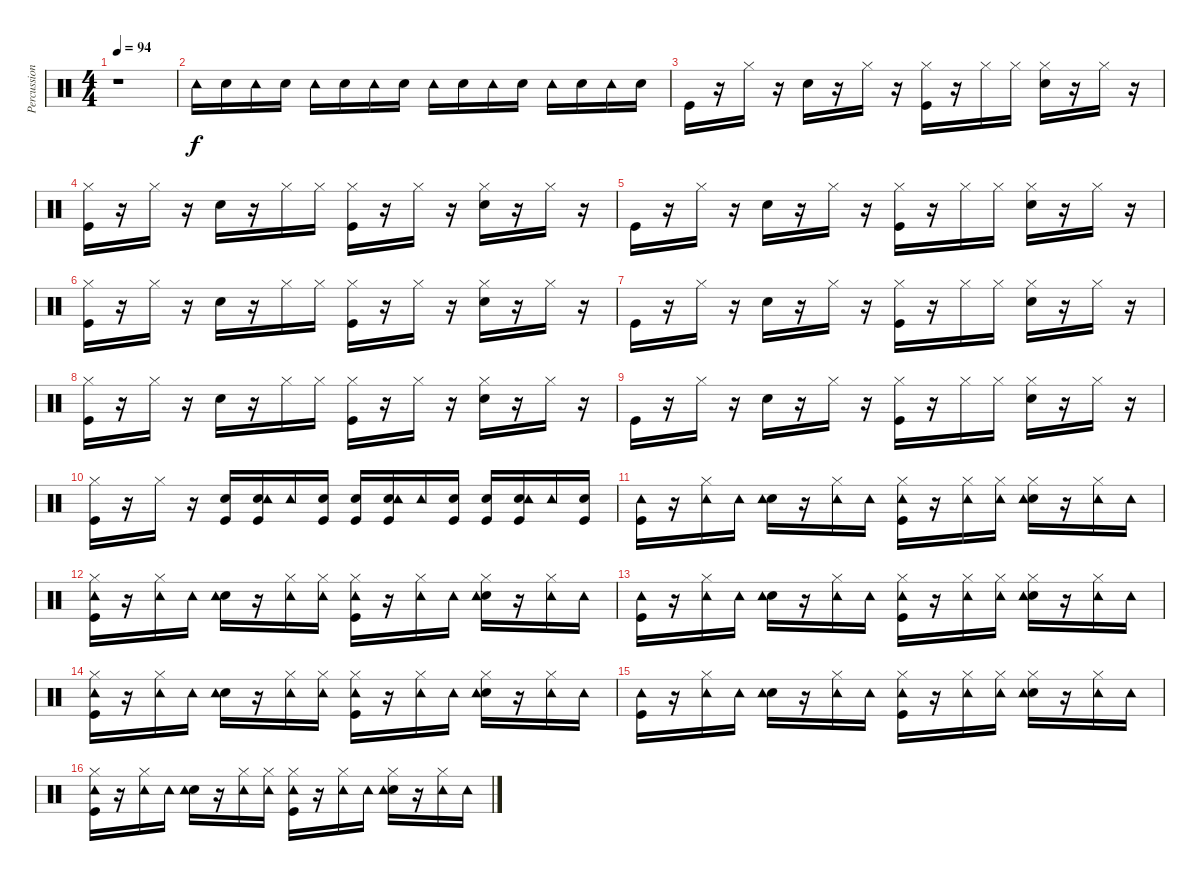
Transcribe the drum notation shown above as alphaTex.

\track ("Percussions/From Midi" "Percussion") {instrument percussion}
\staff {score}
\articulation defaults
\ts (4 4)
\tempo 94
\clef neutral
\ks c
r.1{dy f} |
"Tambourine (hit)".16 "Electric Snare (hit)".16 "Tambourine (hit)".16 "Electric Snare (hit)".16 "Tambourine (hit)".16 "Electric Snare (hit)".16 "Tambourine (hit)".16 "Electric Snare (hit)".16 "Tambourine (hit)".16 "Electric Snare (hit)".16 "Tambourine (hit)".16 "Electric Snare (hit)".16 "Tambourine (hit)".16 "Electric Snare (hit)".16 "Tambourine (hit)".16 "Electric Snare (hit)".16 |
"Kick (hit)".16 r.16 "Hi-Hat (closed)".16 r.16 "Electric Snare (hit)".16 r.16 "Hi-Hat (closed)".16 r.16 ("Kick (hit)" "Hi-Hat (closed)").16 r.16 "Hi-Hat (closed)".16 "Hi-Hat (closed)".16 ("Electric Snare (hit)" "Hi-Hat (closed)").16 r.16 "Hi-Hat (closed)".16 r.16 |
("Kick (hit)" "Hi-Hat (closed)").16 r.16 "Hi-Hat (closed)".16 r.16 "Electric Snare (hit)".16 r.16 "Hi-Hat (closed)".16 "Hi-Hat (closed)".16 ("Kick (hit)" "Hi-Hat (closed)").16 r.16 "Hi-Hat (closed)".16 r.16 ("Electric Snare (hit)" "Hi-Hat (closed)").16 r.16 "Hi-Hat (closed)".16 r.16 |
"Kick (hit)".16 r.16 "Hi-Hat (closed)".16 r.16 "Electric Snare (hit)".16 r.16 "Hi-Hat (closed)".16 r.16 ("Kick (hit)" "Hi-Hat (closed)").16 r.16 "Hi-Hat (closed)".16 "Hi-Hat (closed)".16 ("Electric Snare (hit)" "Hi-Hat (closed)").16 r.16 "Hi-Hat (closed)".16 r.16 |
("Kick (hit)" "Hi-Hat (closed)").16 r.16 "Hi-Hat (closed)".16 r.16 "Electric Snare (hit)".16 r.16 "Hi-Hat (closed)".16 "Hi-Hat (closed)".16 ("Kick (hit)" "Hi-Hat (closed)").16 r.16 "Hi-Hat (closed)".16 r.16 ("Electric Snare (hit)" "Hi-Hat (closed)").16 r.16 "Hi-Hat (closed)".16 r.16 |
"Kick (hit)".16 r.16 "Hi-Hat (closed)".16 r.16 "Electric Snare (hit)".16 r.16 "Hi-Hat (closed)".16 r.16 ("Kick (hit)" "Hi-Hat (closed)").16 r.16 "Hi-Hat (closed)".16 "Hi-Hat (closed)".16 ("Electric Snare (hit)" "Hi-Hat (closed)").16 r.16 "Hi-Hat (closed)".16 r.16 |
("Kick (hit)" "Hi-Hat (closed)").16 r.16 "Hi-Hat (closed)".16 r.16 "Electric Snare (hit)".16 r.16 "Hi-Hat (closed)".16 "Hi-Hat (closed)".16 ("Kick (hit)" "Hi-Hat (closed)").16 r.16 "Hi-Hat (closed)".16 r.16 ("Electric Snare (hit)" "Hi-Hat (closed)").16 r.16 "Hi-Hat (closed)".16 r.16 |
"Kick (hit)".16 r.16 "Hi-Hat (closed)".16 r.16 "Electric Snare (hit)".16 r.16 "Hi-Hat (closed)".16 r.16 ("Kick (hit)" "Hi-Hat (closed)").16 r.16 "Hi-Hat (closed)".16 "Hi-Hat (closed)".16 ("Electric Snare (hit)" "Hi-Hat (closed)").16 r.16 "Hi-Hat (closed)".16 r.16 |
("Kick (hit)" "Hi-Hat (closed)").16 r.16 "Hi-Hat (closed)".16 r.16 ("Kick (hit)" "Electric Snare (hit)").16 ("Kick (hit)" "Electric Snare (hit)" "Tambourine (hit)").16 "Tambourine (hit)".16 ("Kick (hit)" "Electric Snare (hit)").16 ("Kick (hit)" "Electric Snare (hit)").16 ("Kick (hit)" "Electric Snare (hit)" "Tambourine (hit)").16 "Tambourine (hit)".16 ("Kick (hit)" "Electric Snare (hit)").16 ("Kick (hit)" "Electric Snare (hit)").16 ("Kick (hit)" "Electric Snare (hit)" "Tambourine (hit)").16 "Tambourine (hit)".16 ("Kick (hit)" "Electric Snare (hit)").16 |
("Kick (hit)" "Tambourine (hit)").16 r.16 ("Hi-Hat (closed)" "Tambourine (hit)").16 "Tambourine (hit)".16 ("Electric Snare (hit)" "Tambourine (hit)").16 r.16 ("Hi-Hat (closed)" "Tambourine (hit)").16 "Tambourine (hit)".16 ("Kick (hit)" "Hi-Hat (closed)" "Tambourine (hit)").16 r.16 ("Hi-Hat (closed)" "Tambourine (hit)").16 ("Hi-Hat (closed)" "Tambourine (hit)").16 ("Electric Snare (hit)" "Hi-Hat (closed)" "Tambourine (hit)").16 r.16 ("Hi-Hat (closed)" "Tambourine (hit)").16 "Tambourine (hit)".16 |
("Kick (hit)" "Hi-Hat (closed)" "Tambourine (hit)").16 r.16 ("Hi-Hat (closed)" "Tambourine (hit)").16 "Tambourine (hit)".16 ("Electric Snare (hit)" "Tambourine (hit)").16 r.16 ("Hi-Hat (closed)" "Tambourine (hit)").16 ("Hi-Hat (closed)" "Tambourine (hit)").16 ("Kick (hit)" "Hi-Hat (closed)" "Tambourine (hit)").16 r.16 ("Hi-Hat (closed)" "Tambourine (hit)").16 "Tambourine (hit)".16 ("Electric Snare (hit)" "Hi-Hat (closed)" "Tambourine (hit)").16 r.16 ("Hi-Hat (closed)" "Tambourine (hit)").16 "Tambourine (hit)".16 |
("Kick (hit)" "Tambourine (hit)").16 r.16 ("Hi-Hat (closed)" "Tambourine (hit)").16 "Tambourine (hit)".16 ("Electric Snare (hit)" "Tambourine (hit)").16 r.16 ("Hi-Hat (closed)" "Tambourine (hit)").16 "Tambourine (hit)".16 ("Kick (hit)" "Hi-Hat (closed)" "Tambourine (hit)").16 r.16 ("Hi-Hat (closed)" "Tambourine (hit)").16 ("Hi-Hat (closed)" "Tambourine (hit)").16 ("Electric Snare (hit)" "Hi-Hat (closed)" "Tambourine (hit)").16 r.16 ("Hi-Hat (closed)" "Tambourine (hit)").16 "Tambourine (hit)".16 |
("Kick (hit)" "Hi-Hat (closed)" "Tambourine (hit)").16 r.16 ("Hi-Hat (closed)" "Tambourine (hit)").16 "Tambourine (hit)".16 ("Electric Snare (hit)" "Tambourine (hit)").16 r.16 ("Hi-Hat (closed)" "Tambourine (hit)").16 ("Hi-Hat (closed)" "Tambourine (hit)").16 ("Kick (hit)" "Hi-Hat (closed)" "Tambourine (hit)").16 r.16 ("Hi-Hat (closed)" "Tambourine (hit)").16 "Tambourine (hit)".16 ("Electric Snare (hit)" "Hi-Hat (closed)" "Tambourine (hit)").16 r.16 ("Hi-Hat (closed)" "Tambourine (hit)").16 "Tambourine (hit)".16 |
("Kick (hit)" "Tambourine (hit)").16 r.16 ("Hi-Hat (closed)" "Tambourine (hit)").16 "Tambourine (hit)".16 ("Electric Snare (hit)" "Tambourine (hit)").16 r.16 ("Hi-Hat (closed)" "Tambourine (hit)").16 "Tambourine (hit)".16 ("Kick (hit)" "Hi-Hat (closed)" "Tambourine (hit)").16 r.16 ("Hi-Hat (closed)" "Tambourine (hit)").16 ("Hi-Hat (closed)" "Tambourine (hit)").16 ("Electric Snare (hit)" "Hi-Hat (closed)" "Tambourine (hit)").16 r.16 ("Hi-Hat (closed)" "Tambourine (hit)").16 "Tambourine (hit)".16 |
("Kick (hit)" "Hi-Hat (closed)" "Tambourine (hit)").16 r.16 ("Hi-Hat (closed)" "Tambourine (hit)").16 "Tambourine (hit)".16 ("Electric Snare (hit)" "Tambourine (hit)").16 r.16 ("Hi-Hat (closed)" "Tambourine (hit)").16 ("Hi-Hat (closed)" "Tambourine (hit)").16 ("Kick (hit)" "Hi-Hat (closed)" "Tambourine (hit)").16 r.16 ("Hi-Hat (closed)" "Tambourine (hit)").16 "Tambourine (hit)".16 ("Electric Snare (hit)" "Hi-Hat (closed)" "Tambourine (hit)").16 r.16 ("Hi-Hat (closed)" "Tambourine (hit)").16 "Tambourine (hit)".16
